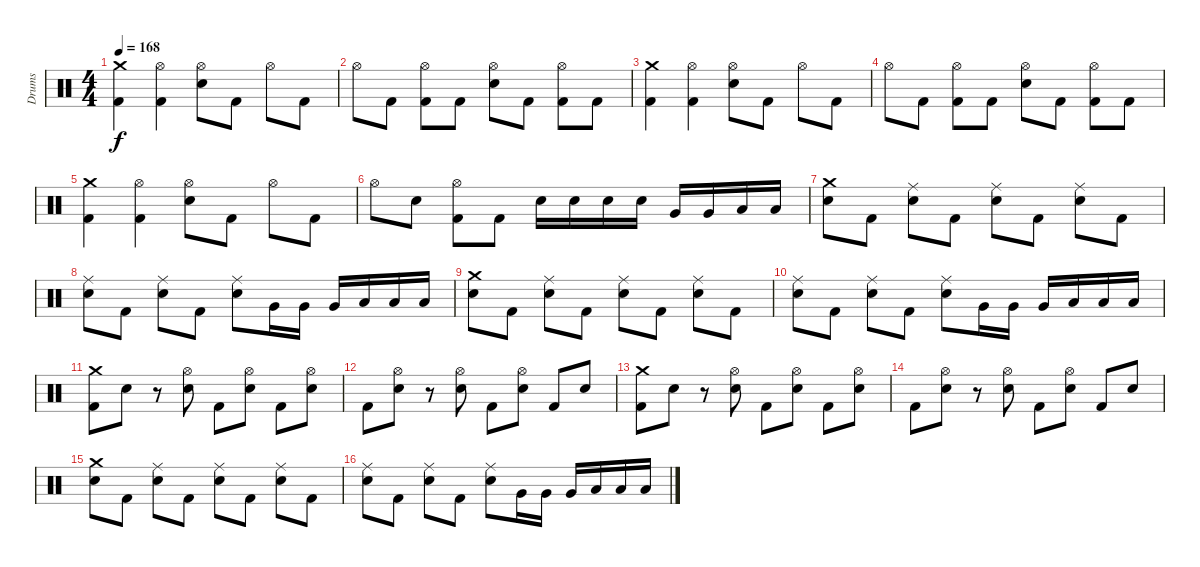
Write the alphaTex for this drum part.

\track ("Drums" "Drums") {instrument percussion}
\staff
\articulation defaults
\ts (4 4)
\tempo 168
\clef neutral
\ks c
("Crash medium (hit)" "Kick (hit) 2").4{dy f} ("Hi-Hat (open)" "Kick (hit) 2").4 ("Hi-Hat (open)" "Electric Snare (hit)").8 "Kick (hit) 2".8 "Hi-Hat (open)".8 "Kick (hit) 2".8 |
"Hi-Hat (open)".8 "Kick (hit) 2".8 ("Hi-Hat (open)" "Kick (hit) 2").8 "Kick (hit) 2".8 ("Hi-Hat (open)" "Electric Snare (hit)").8 "Kick (hit) 2".8 ("Hi-Hat (open)" "Kick (hit) 2").8 "Kick (hit) 2".8 |
("Crash medium (hit)" "Kick (hit) 2").4 ("Hi-Hat (open)" "Kick (hit) 2").4 ("Hi-Hat (open)" "Electric Snare (hit)").8 "Kick (hit) 2".8 "Hi-Hat (open)".8 "Kick (hit) 2".8 |
"Hi-Hat (open)".8 "Kick (hit) 2".8 ("Hi-Hat (open)" "Kick (hit) 2").8 "Kick (hit) 2".8 ("Hi-Hat (open)" "Electric Snare (hit)").8 "Kick (hit) 2".8 ("Hi-Hat (open)" "Kick (hit) 2").8 "Kick (hit) 2".8 |
("Crash medium (hit)" "Kick (hit) 2").4 ("Hi-Hat (open)" "Kick (hit) 2").4 ("Hi-Hat (open)" "Electric Snare (hit)").8 "Kick (hit) 2".8 "Hi-Hat (open)".8 "Kick (hit) 2".8 |
"Hi-Hat (open)".8 "Electric Snare (hit)".8 ("Hi-Hat (open)" "Kick (hit) 2").8 "Kick (hit) 2".8 "Electric Snare (hit)".16 "Electric Snare (hit)".16 "Electric Snare (hit)".16 "Electric Snare (hit)".16 "Very Low Tom (hit)".16 "Very Low Tom (hit)".16 "Low Floor Tom (hit)".16 "Low Floor Tom (hit)".16 |
("Crash medium (hit)" "Electric Snare (hit)").8 "Kick (hit) 2".8 ("Ride (middle)" "Electric Snare (hit)").8 "Kick (hit) 2".8 ("Ride (middle)" "Electric Snare (hit)").8 "Kick (hit) 2".8 ("Ride (middle)" "Electric Snare (hit)").8 "Kick (hit) 2".8 |
("Ride (middle)" "Electric Snare (hit)").8 "Kick (hit) 2".8 ("Ride (middle)" "Electric Snare (hit)").8 "Kick (hit) 2".8 ("Ride (middle)" "Electric Snare (hit)").8 "Very Low Tom (hit)".16 "Very Low Tom (hit)".16 "Very Low Tom (hit)".16 "Low Floor Tom (hit)".16 "Low Floor Tom (hit)".16 "Low Floor Tom (hit)".16 |
("Crash medium (hit)" "Electric Snare (hit)").8 "Kick (hit) 2".8 ("Ride (middle)" "Electric Snare (hit)").8 "Kick (hit) 2".8 ("Ride (middle)" "Electric Snare (hit)").8 "Kick (hit) 2".8 ("Ride (middle)" "Electric Snare (hit)").8 "Kick (hit) 2".8 |
("Ride (middle)" "Electric Snare (hit)").8 "Kick (hit) 2".8 ("Ride (middle)" "Electric Snare (hit)").8 "Kick (hit) 2".8 ("Ride (middle)" "Electric Snare (hit)").8 "Very Low Tom (hit)".16 "Very Low Tom (hit)".16 "Very Low Tom (hit)".16 "Low Floor Tom (hit)".16 "Low Floor Tom (hit)".16 "Low Floor Tom (hit)".16 |
("Crash medium (hit)" "Kick (hit) 2").8 "Electric Snare (hit)".8 r.8 ("Hi-Hat (open)" "Electric Snare (hit)").8 "Kick (hit) 2".8 ("Hi-Hat (open)" "Electric Snare (hit)").8 "Kick (hit) 2".8 ("Hi-Hat (open)" "Electric Snare (hit)").8 |
"Kick (hit) 2".8 ("Hi-Hat (open)" "Electric Snare (hit)").8 r.8 ("Hi-Hat (open)" "Electric Snare (hit)").8 "Kick (hit) 2".8 ("Hi-Hat (open)" "Electric Snare (hit)").8 "Kick (hit) 2".8 "Electric Snare (hit)".8 |
("Crash medium (hit)" "Kick (hit) 2").8 "Electric Snare (hit)".8 r.8 ("Hi-Hat (open)" "Electric Snare (hit)").8 "Kick (hit) 2".8 ("Hi-Hat (open)" "Electric Snare (hit)").8 "Kick (hit) 2".8 ("Hi-Hat (open)" "Electric Snare (hit)").8 |
"Kick (hit) 2".8 ("Hi-Hat (open)" "Electric Snare (hit)").8 r.8 ("Hi-Hat (open)" "Electric Snare (hit)").8 "Kick (hit) 2".8 ("Hi-Hat (open)" "Electric Snare (hit)").8 "Kick (hit) 2".8 "Electric Snare (hit)".8 |
("Crash medium (hit)" "Electric Snare (hit)").8 "Kick (hit) 2".8 ("Ride (middle)" "Electric Snare (hit)").8 "Kick (hit) 2".8 ("Ride (middle)" "Electric Snare (hit)").8 "Kick (hit) 2".8 ("Ride (middle)" "Electric Snare (hit)").8 "Kick (hit) 2".8 |
("Ride (middle)" "Electric Snare (hit)").8 "Kick (hit) 2".8 ("Ride (middle)" "Electric Snare (hit)").8 "Kick (hit) 2".8 ("Ride (middle)" "Electric Snare (hit)").8 "Very Low Tom (hit)".16 "Very Low Tom (hit)".16 "Very Low Tom (hit)".16 "Low Floor Tom (hit)".16 "Low Floor Tom (hit)".16 "Low Floor Tom (hit)".16
